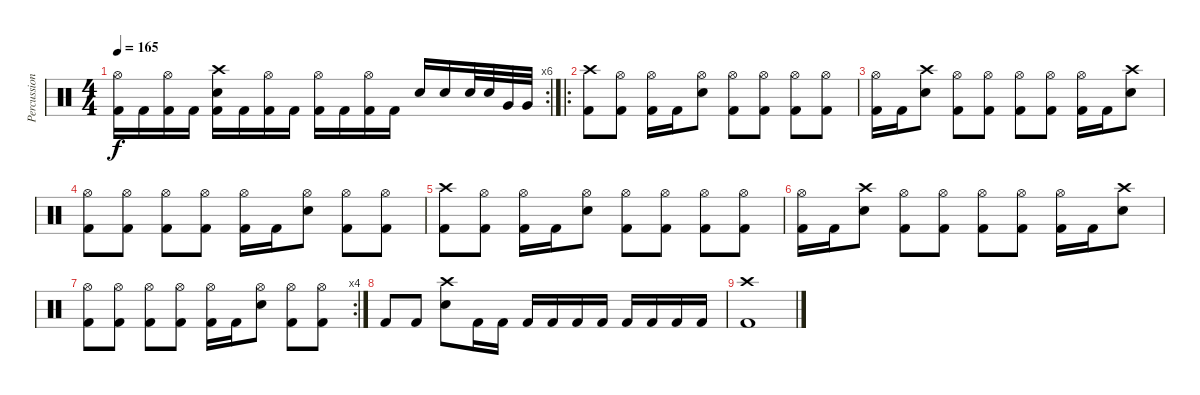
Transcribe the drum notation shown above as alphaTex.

\track ("Percussion" "Percussion") {instrument percussion}
\staff {score}
\articulation defaults
\rc 6
\ts (4 4)
\tempo 165
\clef neutral
\ks c
("Hi-Hat (open)" "Kick (hit) 2").16{dy f} "Kick (hit) 2".16 ("Hi-Hat (open)" "Kick (hit) 2").16 "Kick (hit) 2".16 ("Crash high (hit)" "Snare (hit) 2" "Kick (hit) 2").16 "Kick (hit) 2".16 ("Hi-Hat (open)" "Kick (hit) 2").16 "Kick (hit) 2".16 ("Hi-Hat (open)" "Kick (hit) 2").16 "Kick (hit) 2".16 ("Hi-Hat (open)" "Kick (hit) 2").16 "Kick (hit) 2".16 "Snare (hit) 2".16 "Snare (hit) 2".16 "Snare (hit) 2".32 "Snare (hit) 2".32 "Very Low Tom (hit)".32 "Very Low Tom (hit)".32 |
\ro
("Crash high (hit)" "Kick (hit) 2").8 ("Hi-Hat (open)" "Kick (hit) 2").8 ("Hi-Hat (open)" "Kick (hit) 2").16 "Kick (hit) 2".16 ("Hi-Hat (open)" "Snare (hit) 2").8 ("Hi-Hat (open)" "Kick (hit) 2").8 ("Hi-Hat (open)" "Kick (hit) 2").8 ("Hi-Hat (open)" "Kick (hit) 2").8 ("Hi-Hat (open)" "Kick (hit) 2").8 |
("Hi-Hat (open)" "Kick (hit) 2").16 "Kick (hit) 2".16 ("Crash high (hit)" "Snare (hit) 2").8 ("Hi-Hat (open)" "Kick (hit) 2").8 ("Hi-Hat (open)" "Kick (hit) 2").8 ("Hi-Hat (open)" "Kick (hit) 2").8 ("Hi-Hat (open)" "Kick (hit) 2").8 ("Hi-Hat (open)" "Kick (hit) 2").16 "Kick (hit) 2".16 ("Crash high (hit)" "Snare (hit) 2").8 |
("Hi-Hat (open)" "Kick (hit) 2").8 ("Hi-Hat (open)" "Kick (hit) 2").8 ("Hi-Hat (open)" "Kick (hit) 2").8 ("Hi-Hat (open)" "Kick (hit) 2").8 ("Hi-Hat (open)" "Kick (hit) 2").16 "Kick (hit) 2".16 ("Hi-Hat (open)" "Snare (hit) 2").8 ("Hi-Hat (open)" "Kick (hit) 2").8 ("Hi-Hat (open)" "Kick (hit) 2").8 |
("Crash high (hit)" "Kick (hit) 2").8 ("Hi-Hat (open)" "Kick (hit) 2").8 ("Hi-Hat (open)" "Kick (hit) 2").16 "Kick (hit) 2".16 ("Hi-Hat (open)" "Snare (hit) 2").8 ("Hi-Hat (open)" "Kick (hit) 2").8 ("Hi-Hat (open)" "Kick (hit) 2").8 ("Hi-Hat (open)" "Kick (hit) 2").8 ("Hi-Hat (open)" "Kick (hit) 2").8 |
("Hi-Hat (open)" "Kick (hit) 2").16 "Kick (hit) 2".16 ("Crash high (hit)" "Snare (hit) 2").8 ("Hi-Hat (open)" "Kick (hit) 2").8 ("Hi-Hat (open)" "Kick (hit) 2").8 ("Hi-Hat (open)" "Kick (hit) 2").8 ("Hi-Hat (open)" "Kick (hit) 2").8 ("Hi-Hat (open)" "Kick (hit) 2").16 "Kick (hit) 2".16 ("Crash high (hit)" "Snare (hit) 2").8 |
\rc 4
("Hi-Hat (open)" "Kick (hit) 2").8 ("Hi-Hat (open)" "Kick (hit) 2").8 ("Hi-Hat (open)" "Kick (hit) 2").8 ("Hi-Hat (open)" "Kick (hit) 2").8 ("Hi-Hat (open)" "Kick (hit) 2").16 "Kick (hit) 2".16 ("Hi-Hat (open)" "Snare (hit) 2").8 ("Hi-Hat (open)" "Kick (hit) 2").8 ("Hi-Hat (open)" "Kick (hit) 2").8 |
"Kick (hit) 2".8 "Kick (hit) 2".8 ("Crash high (hit)" "Snare (hit) 2").8 "Kick (hit) 2".16 "Kick (hit) 2".16 "Kick (hit) 2".16 "Kick (hit) 2".16 "Kick (hit) 2".16 "Kick (hit) 2".16 "Kick (hit) 2".16 "Kick (hit) 2".16 "Kick (hit) 2".16 "Kick (hit) 2".16 |
("Crash high (hit)" "Kick (hit) 2").1
